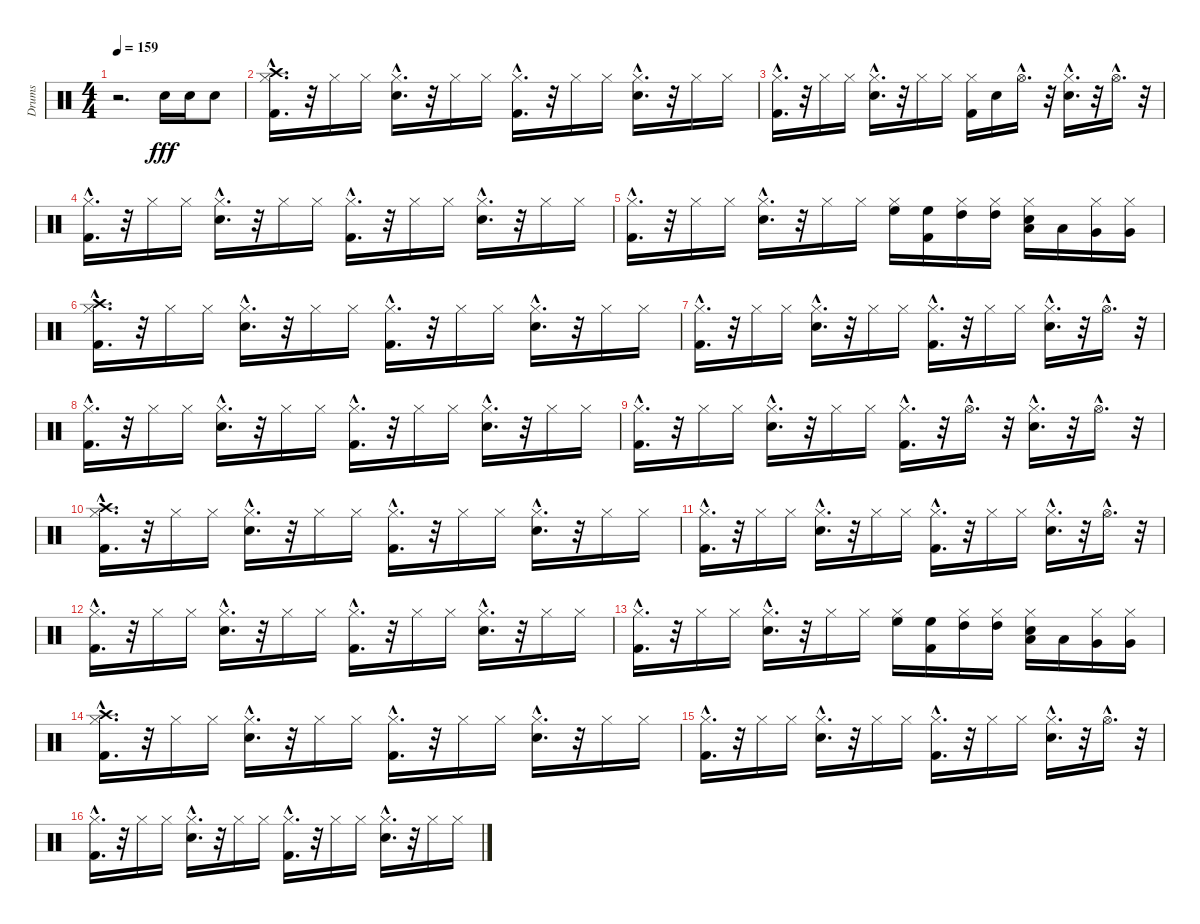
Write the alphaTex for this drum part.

\track ("Drums" "Drums") {instrument percussion}
\staff {score}
\articulation defaults
\ts (4 4)
\tempo 159
\clef neutral
\ks c
r.2{d dy fff} "Electric Snare (hit)".16 "Electric Snare (hit)".16 "Electric Snare (hit)".8 |
("Kick (hit) 2"{hac} "Hi-Hat (closed)"{hac} "Crash high (hit)"{hac}).16{d} r.32 "Hi-Hat (closed)".16 "Hi-Hat (closed)".16 ("Electric Snare (hit)"{hac} "Hi-Hat (closed)"{hac}).16{d} r.32 "Hi-Hat (closed)".16 "Hi-Hat (closed)".16 ("Kick (hit) 2"{hac} "Hi-Hat (closed)"{hac}).16{d} r.32 "Hi-Hat (closed)".16 "Hi-Hat (closed)".16 ("Electric Snare (hit)"{hac} "Hi-Hat (closed)"{hac}).16{d} r.32 "Hi-Hat (closed)".16 "Hi-Hat (closed)".16 |
("Hi-Hat (closed)"{hac} "Kick (hit) 2"{hac}).16{d} r.32 "Hi-Hat (closed)".16 "Hi-Hat (closed)".16 ("Hi-Hat (closed)"{hac} "Electric Snare (hit)"{hac}).16{d} r.32 "Hi-Hat (closed)".16 "Hi-Hat (closed)".16 ("Hi-Hat (closed)" "Kick (hit) 2").16 "Electric Snare (hit)".16 "Hi-Hat (open)"{hac}.16{d} r.32 ("Hi-Hat (closed)"{hac} "Electric Snare (hit)"{hac}).16{d} r.32 "Hi-Hat (open)"{hac}.16{d} r.32 |
("Hi-Hat (closed)"{hac} "Kick (hit) 2"{hac}).16{d} r.32 "Hi-Hat (closed)".16 "Hi-Hat (closed)".16 ("Hi-Hat (closed)"{hac} "Electric Snare (hit)"{hac}).16{d} r.32 "Hi-Hat (closed)".16 "Hi-Hat (closed)".16 ("Hi-Hat (closed)"{hac} "Kick (hit) 2"{hac}).16{d} r.32 "Hi-Hat (closed)".16 "Hi-Hat (closed)".16 ("Hi-Hat (closed)"{hac} "Electric Snare (hit)"{hac}).16{d} r.32 "Hi-Hat (closed)".16 "Hi-Hat (closed)".16 |
("Hi-Hat (closed)"{hac} "Kick (hit) 2"{hac}).16{d} r.32 "Hi-Hat (closed)".16 "Hi-Hat (closed)".16 ("Hi-Hat (closed)"{hac} "Electric Snare (hit)"{hac}).16{d} r.32 "Hi-Hat (closed)".16 "Hi-Hat (closed)".16 ("Hi-Hat (closed)" "High Floor Tom (hit)").16 ("Kick (hit) 2" "High Floor Tom (hit)").16 ("Hi-Hat (closed)" "High Tom (hit)").16 ("Hi-Hat (closed)" "High Tom (hit)").16 ("Electric Snare (hit)" "Low Tom (hit)" "Hi-Hat (closed)").16 "Low Tom (hit)".16 ("Very Low Tom (hit)" "Hi-Hat (closed)").16 ("Very Low Tom (hit)" "Hi-Hat (closed)").16 |
("Crash high (hit)"{hac} "Hi-Hat (closed)"{hac} "Kick (hit) 2"{hac}).16{d} r.32 "Hi-Hat (closed)".16 "Hi-Hat (closed)".16 ("Hi-Hat (closed)"{hac} "Electric Snare (hit)"{hac}).16{d} r.32 "Hi-Hat (closed)".16 "Hi-Hat (closed)".16 ("Hi-Hat (closed)"{hac} "Kick (hit) 2"{hac}).16{d} r.32 "Hi-Hat (closed)".16 "Hi-Hat (closed)".16 ("Hi-Hat (closed)"{hac} "Electric Snare (hit)"{hac}).16{d} r.32 "Hi-Hat (closed)".16 "Hi-Hat (closed)".16 |
("Hi-Hat (closed)"{hac} "Kick (hit) 2"{hac}).16{d} r.32 "Hi-Hat (closed)".16 "Hi-Hat (closed)".16 ("Hi-Hat (closed)"{hac} "Electric Snare (hit)"{hac}).16{d} r.32 "Hi-Hat (closed)".16 "Hi-Hat (closed)".16 ("Hi-Hat (closed)"{hac} "Kick (hit) 2"{hac}).16{d} r.32 "Hi-Hat (closed)".16 "Hi-Hat (closed)".16 ("Hi-Hat (closed)"{hac} "Electric Snare (hit)"{hac}).16{d} r.32 "Hi-Hat (open)"{hac}.16{d} r.32 |
("Kick (hit) 2"{hac} "Hi-Hat (closed)"{hac}).16{d} r.32 "Hi-Hat (closed)".16 "Hi-Hat (closed)".16 ("Electric Snare (hit)"{hac} "Hi-Hat (closed)"{hac}).16{d} r.32 "Hi-Hat (closed)".16 "Hi-Hat (closed)".16 ("Kick (hit) 2"{hac} "Hi-Hat (closed)"{hac}).16{d} r.32 "Hi-Hat (closed)".16 "Hi-Hat (closed)".16 ("Electric Snare (hit)"{hac} "Hi-Hat (closed)"{hac}).16{d} r.32 "Hi-Hat (closed)".16 "Hi-Hat (closed)".16 |
("Kick (hit) 2"{hac} "Hi-Hat (closed)"{hac}).16{d} r.32 "Hi-Hat (closed)".16 "Hi-Hat (closed)".16 ("Electric Snare (hit)"{hac} "Hi-Hat (closed)"{hac}).16{d} r.32 "Hi-Hat (closed)".16 "Hi-Hat (closed)".16 ("Kick (hit) 2"{hac} "Hi-Hat (closed)"{hac}).16{d} r.32 "Hi-Hat (open)"{hac}.16{d} r.32 ("Hi-Hat (closed)"{hac} "Electric Snare (hit)"{hac}).16{d} r.32 "Hi-Hat (open)"{hac}.16{d} r.32 |
("Crash high (hit)"{hac} "Hi-Hat (closed)"{hac} "Kick (hit) 2"{hac}).16{d} r.32 "Hi-Hat (closed)".16 "Hi-Hat (closed)".16 ("Hi-Hat (closed)"{hac} "Electric Snare (hit)"{hac}).16{d} r.32 "Hi-Hat (closed)".16 "Hi-Hat (closed)".16 ("Hi-Hat (closed)"{hac} "Kick (hit) 2"{hac}).16{d} r.32 "Hi-Hat (closed)".16 "Hi-Hat (closed)".16 ("Hi-Hat (closed)"{hac} "Electric Snare (hit)"{hac}).16{d} r.32 "Hi-Hat (closed)".16 "Hi-Hat (closed)".16 |
("Hi-Hat (closed)"{hac} "Kick (hit) 2"{hac}).16{d} r.32 "Hi-Hat (closed)".16 "Hi-Hat (closed)".16 ("Hi-Hat (closed)"{hac} "Electric Snare (hit)"{hac}).16{d} r.32 "Hi-Hat (closed)".16 "Hi-Hat (closed)".16 ("Hi-Hat (closed)"{hac} "Kick (hit) 2"{hac}).16{d} r.32 "Hi-Hat (closed)".16 "Hi-Hat (closed)".16 ("Hi-Hat (closed)"{hac} "Electric Snare (hit)"{hac}).16{d} r.32 "Hi-Hat (open)"{hac}.16{d} r.32 |
("Hi-Hat (closed)"{hac} "Kick (hit) 2"{hac}).16{d} r.32 "Hi-Hat (closed)".16 "Hi-Hat (closed)".16 ("Hi-Hat (closed)"{hac} "Electric Snare (hit)"{hac}).16{d} r.32 "Hi-Hat (closed)".16 "Hi-Hat (closed)".16 ("Hi-Hat (closed)"{hac} "Kick (hit) 2"{hac}).16{d} r.32 "Hi-Hat (closed)".16 "Hi-Hat (closed)".16 ("Hi-Hat (closed)"{hac} "Electric Snare (hit)"{hac}).16{d} r.32 "Hi-Hat (closed)".16 "Hi-Hat (closed)".16 |
("Kick (hit) 2"{hac} "Hi-Hat (closed)"{hac}).16{d} r.32 "Hi-Hat (closed)".16 "Hi-Hat (closed)".16 ("Electric Snare (hit)"{hac} "Hi-Hat (closed)"{hac}).16{d} r.32 "Hi-Hat (closed)".16 "Hi-Hat (closed)".16 ("High Floor Tom (hit)" "Hi-Hat (closed)").16 ("High Floor Tom (hit)" "Kick (hit) 2").16 ("High Tom (hit)" "Hi-Hat (closed)").16 ("High Tom (hit)" "Hi-Hat (closed)").16 ("Hi-Hat (closed)" "Low Tom (hit)" "Electric Snare (hit)").16 "Low Tom (hit)".16 ("Hi-Hat (closed)" "Very Low Tom (hit)").16 ("Hi-Hat (closed)" "Very Low Tom (hit)").16 |
("Crash high (hit)"{hac} "Hi-Hat (closed)"{hac} "Kick (hit) 2"{hac}).16{d} r.32 "Hi-Hat (closed)".16 "Hi-Hat (closed)".16 ("Hi-Hat (closed)"{hac} "Electric Snare (hit)"{hac}).16{d} r.32 "Hi-Hat (closed)".16 "Hi-Hat (closed)".16 ("Hi-Hat (closed)"{hac} "Kick (hit) 2"{hac}).16{d} r.32 "Hi-Hat (closed)".16 "Hi-Hat (closed)".16 ("Hi-Hat (closed)"{hac} "Electric Snare (hit)"{hac}).16{d} r.32 "Hi-Hat (closed)".16 "Hi-Hat (closed)".16 |
("Hi-Hat (closed)"{hac} "Kick (hit) 2"{hac}).16{d} r.32 "Hi-Hat (closed)".16 "Hi-Hat (closed)".16 ("Hi-Hat (closed)"{hac} "Electric Snare (hit)"{hac}).16{d} r.32 "Hi-Hat (closed)".16 "Hi-Hat (closed)".16 ("Hi-Hat (closed)"{hac} "Kick (hit) 2"{hac}).16{d} r.32 "Hi-Hat (closed)".16 "Hi-Hat (closed)".16 ("Hi-Hat (closed)"{hac} "Electric Snare (hit)"{hac}).16{d} r.32 "Hi-Hat (open)"{hac}.16{d} r.32 |
("Hi-Hat (closed)"{hac} "Kick (hit) 2"{hac}).16{d} r.32 "Hi-Hat (closed)".16 "Hi-Hat (closed)".16 ("Hi-Hat (closed)"{hac} "Electric Snare (hit)"{hac}).16{d} r.32 "Hi-Hat (closed)".16 "Hi-Hat (closed)".16 ("Hi-Hat (closed)"{hac} "Kick (hit) 2"{hac}).16{d} r.32 "Hi-Hat (closed)".16 "Hi-Hat (closed)".16 ("Hi-Hat (closed)"{hac} "Electric Snare (hit)"{hac}).16{d} r.32 "Hi-Hat (closed)".16 "Hi-Hat (closed)".16
